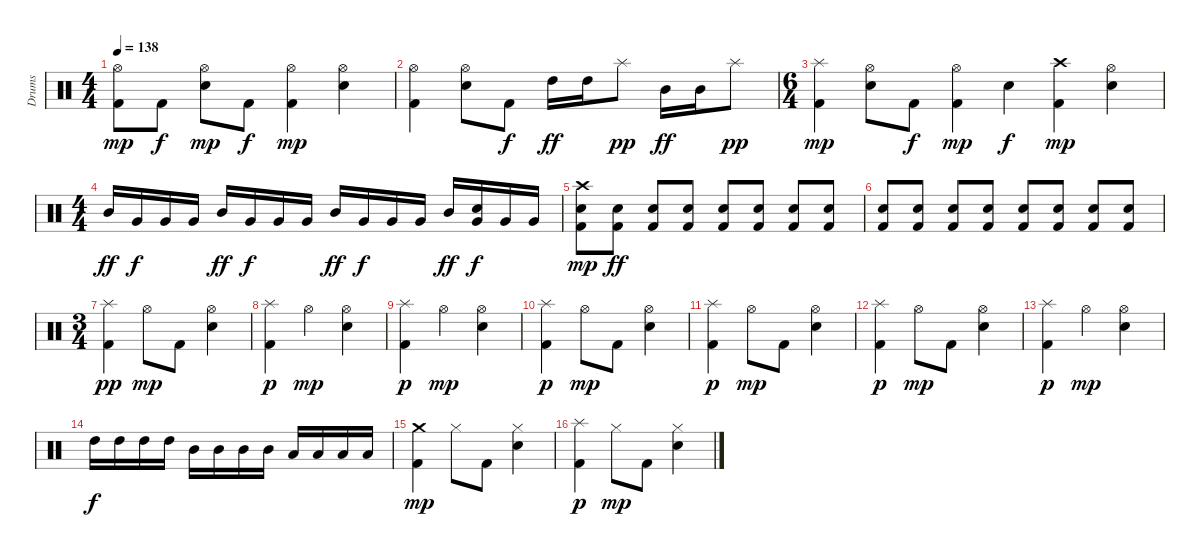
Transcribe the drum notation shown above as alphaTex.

\track ("Drums" "Drums") {instrument percussion}
\staff {score}
\articulation defaults
\ts (4 4)
\tempo 138
\clef neutral
\ks c
("Kick (hit) 2" "Hi-Hat (open)").8{dy mp} "Kick (hit) 2".8{dy f} ("Electric Snare (hit)" "Hi-Hat (open)").8{dy mp} "Kick (hit) 2".8{dy f} ("Kick (hit) 2" "Hi-Hat (open)").4{dy mp} ("Electric Snare (hit)" "Hi-Hat (open)").4 |
("Kick (hit) 2" "Hi-Hat (open)").4 ("Electric Snare (hit)" "Hi-Hat (open)").8 "Kick (hit) 2".8{dy f} "High Tom (hit)".16{dy ff} "High Tom (hit)".16 "Splash (hit)".8{dy pp} "Mid Tom (hit)".16{dy ff} "Mid Tom (hit)".16 "Splash (hit)".8{dy pp} |
\ts (6 4)
("Kick (hit) 2" "Splash (hit)").4{dy mp} ("Electric Snare (hit)" "Hi-Hat (open)").8 "Kick (hit) 2".8{dy f} ("Kick (hit) 2" "Hi-Hat (open)").4{dy mp} "Electric Snare (hit)".4{dy f} ("Kick (hit) 2" "Crash high (hit)").4{dy mp} ("Electric Snare (hit)" "Hi-Hat (open)").4 |
\ts (4 4)
"Mid Tom (hit)".16{dy ff} "Very Low Tom (hit)".16{dy f} "Very Low Tom (hit)".16 "Very Low Tom (hit)".16 "Mid Tom (hit)".16{dy ff} "Very Low Tom (hit)".16{dy f} "Very Low Tom (hit)".16 "Very Low Tom (hit)".16 "Mid Tom (hit)".16{dy ff} "Very Low Tom (hit)".16{dy f} "Very Low Tom (hit)".16 "Very Low Tom (hit)".16 "Mid Tom (hit)".16{dy ff} ("Electric Snare (hit)" "Very Low Tom (hit)").16{dy f} "Very Low Tom (hit)".16 "Very Low Tom (hit)".16 |
("Kick (hit) 2" "Electric Snare (hit)" "Crash high (hit)").8{dy mp} ("Kick (hit) 2" "Electric Snare (hit)").8{dy ff} ("Kick (hit) 2" "Electric Snare (hit)").8 ("Kick (hit) 2" "Electric Snare (hit)").8 ("Kick (hit) 2" "Electric Snare (hit)").8 ("Kick (hit) 2" "Electric Snare (hit)").8 ("Kick (hit) 2" "Electric Snare (hit)").8 ("Kick (hit) 2" "Electric Snare (hit)").8 |
("Kick (hit) 2" "Electric Snare (hit)").8 ("Kick (hit) 2" "Electric Snare (hit)").8 ("Kick (hit) 2" "Electric Snare (hit)").8 ("Kick (hit) 2" "Electric Snare (hit)").8 ("Kick (hit) 2" "Electric Snare (hit)").8 ("Kick (hit) 2" "Electric Snare (hit)").8 ("Kick (hit) 2" "Electric Snare (hit)").8 ("Kick (hit) 2" "Electric Snare (hit)").8 |
\ts (3 4)
("Kick (hit) 2" "Splash (hit)").4{dy pp} "Hi-Hat (open)".8{dy mp} "Kick (hit) 2".8 ("Electric Snare (hit)" "Hi-Hat (open)").4 |
("Kick (hit) 2" "Splash (hit)").4{dy p} "Hi-Hat (open)".4{dy mp} ("Electric Snare (hit)" "Hi-Hat (open)").4 |
("Kick (hit) 2" "Splash (hit)").4{dy p} "Hi-Hat (open)".4{dy mp} ("Electric Snare (hit)" "Hi-Hat (open)").4 |
("Kick (hit) 2" "Splash (hit)").4{dy p} "Hi-Hat (open)".8{dy mp} "Kick (hit) 2".8 ("Electric Snare (hit)" "Hi-Hat (open)").4 |
("Kick (hit) 2" "Splash (hit)").4{dy p} "Hi-Hat (open)".8{dy mp} "Kick (hit) 2".8 ("Electric Snare (hit)" "Hi-Hat (open)").4 |
("Kick (hit) 2" "Splash (hit)").4{dy p} "Hi-Hat (open)".8{dy mp} "Kick (hit) 2".8 ("Electric Snare (hit)" "Hi-Hat (open)").4 |
("Kick (hit) 2" "Splash (hit)").4{dy p} "Hi-Hat (open)".4{dy mp} ("Electric Snare (hit)" "Hi-Hat (open)").4 |
"High Tom (hit)".16{dy f} "High Tom (hit)".16 "High Tom (hit)".16 "High Tom (hit)".16 "Mid Tom (hit)".16 "Mid Tom (hit)".16 "Mid Tom (hit)".16 "Mid Tom (hit)".16 "Low Tom (hit)".16 "Low Tom (hit)".16 "Low Tom (hit)".16 "Low Tom (hit)".16 |
("Kick (hit) 2" "Crash medium (hit)").4{dy mp} "Hi-Hat (closed)".8 "Kick (hit) 2".8 ("Electric Snare (hit)" "Hi-Hat (closed)").4 |
("Kick (hit) 2" "Splash (hit)").4{dy p} "Hi-Hat (closed)".8{dy mp} "Kick (hit) 2".8 ("Electric Snare (hit)" "Hi-Hat (closed)").4
